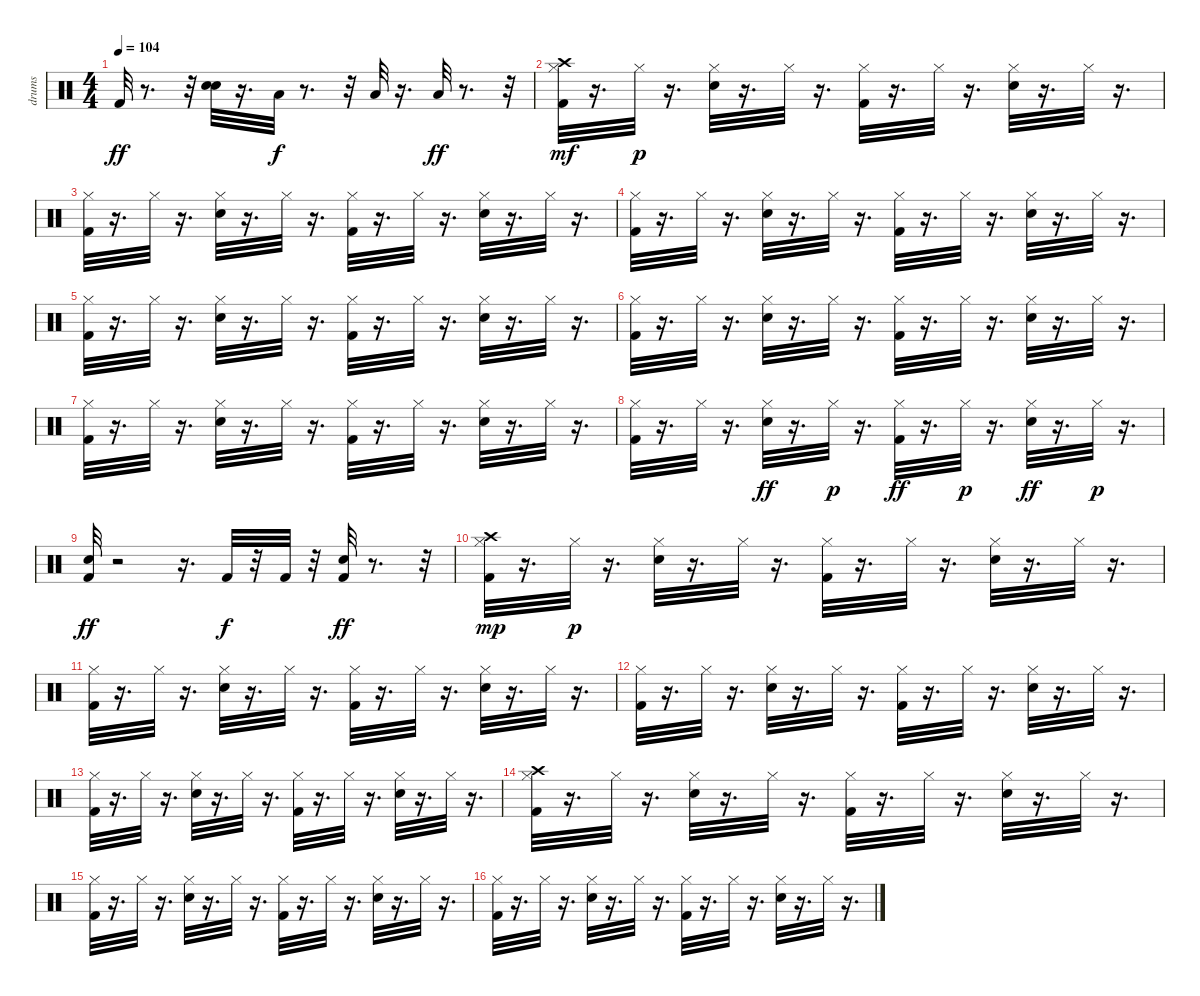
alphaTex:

\track ("drums" "drums") {instrument percussion}
\staff {score}
\articulation defaults
\ts (4 4)
\tempo 104
\clef neutral
\ks c "Kick (hit) 2".32{dy ff}
r.8{d} r.32 ("Snare (hit) 2" "Hand Clap (hit)").32 r.16{d} "Low Tom (hit)".32{dy f} r.8{d} r.32 "Low Tom (hit)".32 r.16{d} "Low Tom (hit)".32{dy ff} r.8{d} r.32 |
("Kick (hit) 2" "Hi-Hat (closed)" "Crash high (hit)").32{dy mf} r.16{d} "Hi-Hat (closed)".32{dy p} r.16{d} ("Snare (hit) 2" "Hi-Hat (closed)").32 r.16{d} "Hi-Hat (closed)".32 r.16{d} ("Kick (hit) 2" "Hi-Hat (closed)").32 r.16{d} "Hi-Hat (closed)".32 r.16{d} ("Snare (hit) 2" "Hi-Hat (closed)").32 r.16{d} "Hi-Hat (closed)".32 r.16{d} |
("Kick (hit) 2" "Hi-Hat (closed)").32 r.16{d} "Hi-Hat (closed)".32 r.16{d} ("Snare (hit) 2" "Hi-Hat (closed)").32 r.16{d} "Hi-Hat (closed)".32 r.16{d} ("Kick (hit) 2" "Hi-Hat (closed)").32 r.16{d} "Hi-Hat (closed)".32 r.16{d} ("Snare (hit) 2" "Hi-Hat (closed)").32 r.16{d} "Hi-Hat (closed)".32 r.16{d} |
("Kick (hit) 2" "Hi-Hat (closed)").32 r.16{d} "Hi-Hat (closed)".32 r.16{d} ("Snare (hit) 2" "Hi-Hat (closed)").32 r.16{d} "Hi-Hat (closed)".32 r.16{d} ("Kick (hit) 2" "Hi-Hat (closed)").32 r.16{d} "Hi-Hat (closed)".32 r.16{d} ("Snare (hit) 2" "Hi-Hat (closed)").32 r.16{d} "Hi-Hat (closed)".32 r.16{d} |
("Kick (hit) 2" "Hi-Hat (closed)").32 r.16{d} "Hi-Hat (closed)".32 r.16{d} ("Snare (hit) 2" "Hi-Hat (closed)").32 r.16{d} "Hi-Hat (closed)".32 r.16{d} ("Kick (hit) 2" "Hi-Hat (closed)").32 r.16{d} "Hi-Hat (closed)".32 r.16{d} ("Snare (hit) 2" "Hi-Hat (closed)").32 r.16{d} "Hi-Hat (closed)".32 r.16{d} |
("Kick (hit) 2" "Hi-Hat (closed)").32 r.16{d} "Hi-Hat (closed)".32 r.16{d} ("Snare (hit) 2" "Hi-Hat (closed)").32 r.16{d} "Hi-Hat (closed)".32 r.16{d} ("Kick (hit) 2" "Hi-Hat (closed)").32 r.16{d} "Hi-Hat (closed)".32 r.16{d} ("Snare (hit) 2" "Hi-Hat (closed)").32 r.16{d} "Hi-Hat (closed)".32 r.16{d} |
("Kick (hit) 2" "Hi-Hat (closed)").32 r.16{d} "Hi-Hat (closed)".32 r.16{d} ("Snare (hit) 2" "Hi-Hat (closed)").32 r.16{d} "Hi-Hat (closed)".32 r.16{d} ("Kick (hit) 2" "Hi-Hat (closed)").32 r.16{d} "Hi-Hat (closed)".32 r.16{d} ("Snare (hit) 2" "Hi-Hat (closed)").32 r.16{d} "Hi-Hat (closed)".32 r.16{d} |
("Kick (hit) 2" "Hi-Hat (closed)").32 r.16{d} "Hi-Hat (closed)".32 r.16{d} ("Hi-Hat (closed)" "Snare (hit) 2").32{dy ff} r.16{d} "Hi-Hat (closed)".32{dy p} r.16{d} ("Hi-Hat (closed)" "Kick (hit) 2").32{dy ff} r.16{d} "Hi-Hat (closed)".32{dy p} r.16{d} ("Hi-Hat (closed)" "Snare (hit) 2").32{dy ff} r.16{d} "Hi-Hat (closed)".32{dy p} r.16{d} |
("Kick (hit) 2" "Snare (hit) 2").32{dy ff} r.2 r.16{d} "Kick (hit) 2".32{dy f} r.32 "Kick (hit) 2".32 r.32 ("Snare (hit) 2" "Kick (hit) 2").32{dy ff} r.8{d} r.32 |
("Kick (hit) 2" "Hi-Hat (closed)" "Crash high (hit)").32{dy mp} r.16{d} "Hi-Hat (closed)".32{dy p} r.16{d} ("Snare (hit) 2" "Hi-Hat (closed)").32 r.16{d} "Hi-Hat (closed)".32 r.16{d} ("Kick (hit) 2" "Hi-Hat (closed)").32 r.16{d} "Hi-Hat (closed)".32 r.16{d} ("Snare (hit) 2" "Hi-Hat (closed)").32 r.16{d} "Hi-Hat (closed)".32 r.16{d} |
("Kick (hit) 2" "Hi-Hat (closed)").32 r.16{d} "Hi-Hat (closed)".32 r.16{d} ("Snare (hit) 2" "Hi-Hat (closed)").32 r.16{d} "Hi-Hat (closed)".32 r.16{d} ("Kick (hit) 2" "Hi-Hat (closed)").32 r.16{d} "Hi-Hat (closed)".32 r.16{d} ("Snare (hit) 2" "Hi-Hat (closed)").32 r.16{d} "Hi-Hat (closed)".32 r.16{d} |
("Kick (hit) 2" "Hi-Hat (closed)").32 r.16{d} "Hi-Hat (closed)".32 r.16{d} ("Snare (hit) 2" "Hi-Hat (closed)").32 r.16{d} "Hi-Hat (closed)".32 r.16{d} ("Kick (hit) 2" "Hi-Hat (closed)").32 r.16{d} "Hi-Hat (closed)".32 r.16{d} ("Snare (hit) 2" "Hi-Hat (closed)").32 r.16{d} "Hi-Hat (closed)".32 r.16{d} |
("Kick (hit) 2" "Hi-Hat (closed)").32 r.16{d} "Hi-Hat (closed)".32 r.16{d} ("Snare (hit) 2" "Hi-Hat (closed)").32 r.16{d} "Hi-Hat (closed)".32 r.16{d} ("Kick (hit) 2" "Hi-Hat (closed)").32 r.16{d} "Hi-Hat (closed)".32 r.16{d} ("Snare (hit) 2" "Hi-Hat (closed)").32 r.16{d} "Hi-Hat (closed)".32 r.16{d} |
("Kick (hit) 2" "Hi-Hat (closed)" "Crash high (hit)").32 r.16{d} "Hi-Hat (closed)".32 r.16{d} ("Snare (hit) 2" "Hi-Hat (closed)").32 r.16{d} "Hi-Hat (closed)".32 r.16{d} ("Kick (hit) 2" "Hi-Hat (closed)").32 r.16{d} "Hi-Hat (closed)".32 r.16{d} ("Snare (hit) 2" "Hi-Hat (closed)").32 r.16{d} "Hi-Hat (closed)".32 r.16{d} |
("Kick (hit) 2" "Hi-Hat (closed)").32 r.16{d} "Hi-Hat (closed)".32 r.16{d} ("Snare (hit) 2" "Hi-Hat (closed)").32 r.16{d} "Hi-Hat (closed)".32 r.16{d} ("Kick (hit) 2" "Hi-Hat (closed)").32 r.16{d} "Hi-Hat (closed)".32 r.16{d} ("Snare (hit) 2" "Hi-Hat (closed)").32 r.16{d} "Hi-Hat (closed)".32 r.16{d} |
("Kick (hit) 2" "Hi-Hat (closed)").32 r.16{d} "Hi-Hat (closed)".32 r.16{d} ("Snare (hit) 2" "Hi-Hat (closed)").32 r.16{d} "Hi-Hat (closed)".32 r.16{d} ("Kick (hit) 2" "Hi-Hat (closed)").32 r.16{d} "Hi-Hat (closed)".32 r.16{d} ("Snare (hit) 2" "Hi-Hat (closed)").32 r.16{d} "Hi-Hat (closed)".32 r.16{d}
